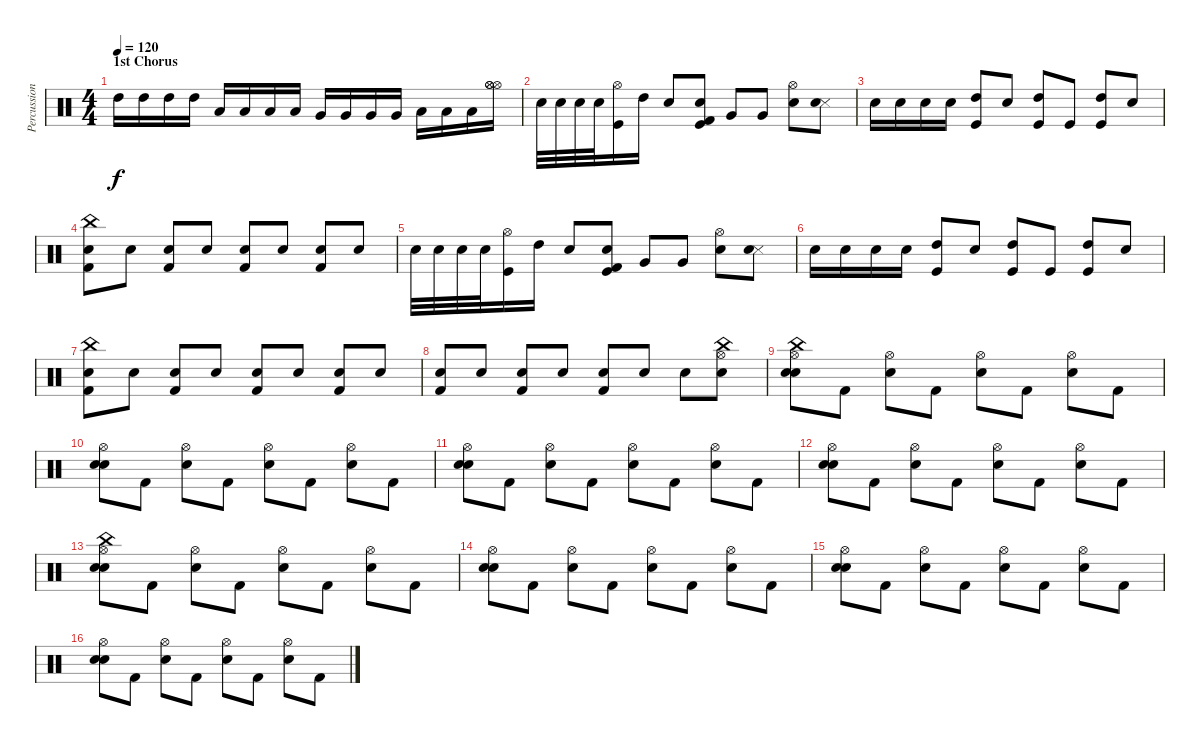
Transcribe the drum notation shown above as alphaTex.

\track ("Percussion" "Percussion") {instrument percussion}
\staff {score}
\articulation defaults
\ts (4 4)
\section ("" "1st Chorus")
\tempo 120
\clef neutral
\ks c "High Tom (hit)".16{dy f} "High Tom (hit)".16 "High Tom (hit)".16 "High Tom (hit)".16 "Low Tom (hit)".16 "Low Tom (hit)".16 "Low Tom (hit)".16 "Low Tom (hit)".16 "Very Low Tom (hit)".16 "Very Low Tom (hit)".16 "Very Low Tom (hit)".16 "Very Low Tom (hit)".16 "Low Floor Tom (hit)".16 "Low Floor Tom (hit)".16 "Low Floor Tom (hit)".16
("Hi-Hat (open)" "Hi-Hat (open)" "Hi-Hat (open)").16 |
"Electric Snare (hit)".32 "Electric Snare (hit)".32 "Electric Snare (hit)".32 "Electric Snare (hit)".32 ("Kick (hit)" "Hi-Hat (open)").16 "High Tom (hit)".16 "Electric Snare (hit)".8 ("Kick (hit)" "Kick (hit) 2" "Electric Snare (hit)").8 "Very Low Tom (hit)".8 "Very Low Tom (hit)".8 ("Hi-Hat (open)" "Snare (hit) 2").8 ("Snare (side stick) 3" "Snare (hit) 2").8 |
"Electric Snare (hit)".16 "Electric Snare (hit)".16 "Electric Snare (hit)".16 "Electric Snare (hit)".16 ("High Tom (hit)" "Kick (hit)").8 "Electric Snare (hit)".8 ("High Tom (hit)" "Kick (hit)").8 "Kick (hit)".8 ("High Tom (hit)" "Kick (hit)").8 "Electric Snare (hit)".8 |
("China (hit)" "Kick (hit) 2" "Electric Snare (hit)").8 "Electric Snare (hit)".8 ("Kick (hit) 2" "Electric Snare (hit)").8 "Electric Snare (hit)".8 ("Kick (hit) 2" "Electric Snare (hit)").8 "Electric Snare (hit)".8 ("Kick (hit) 2" "Electric Snare (hit)").8 "Electric Snare (hit)".8 |
"Electric Snare (hit)".32 "Electric Snare (hit)".32 "Electric Snare (hit)".32 "Electric Snare (hit)".32 ("Kick (hit)" "Hi-Hat (open)").16 "High Tom (hit)".16 "Electric Snare (hit)".8 ("Kick (hit)" "Kick (hit) 2" "Electric Snare (hit)").8 "Very Low Tom (hit)".8 "Very Low Tom (hit)".8 ("Hi-Hat (open)" "Snare (hit) 2").8 ("Snare (side stick) 3" "Snare (hit) 2").8 |
"Electric Snare (hit)".16 "Electric Snare (hit)".16 "Electric Snare (hit)".16 "Electric Snare (hit)".16 ("High Tom (hit)" "Kick (hit)").8 "Electric Snare (hit)".8 ("High Tom (hit)" "Kick (hit)").8 "Kick (hit)".8 ("High Tom (hit)" "Kick (hit)").8 "Electric Snare (hit)".8 |
("China (hit)" "Kick (hit) 2" "Electric Snare (hit)").8 "Electric Snare (hit)".8 ("Kick (hit) 2" "Electric Snare (hit)").8 "Electric Snare (hit)".8 ("Kick (hit) 2" "Electric Snare (hit)").8 "Electric Snare (hit)".8 ("Kick (hit) 2" "Electric Snare (hit)").8 "Electric Snare (hit)".8 |
("Kick (hit) 2" "Electric Snare (hit)").8 "Electric Snare (hit)".8 ("Kick (hit) 2" "Electric Snare (hit)").8 "Electric Snare (hit)".8 ("Kick (hit) 2" "Electric Snare (hit)").8 "Electric Snare (hit)".8 "Electric Snare (hit)".8 ("China (hit)" "Hi-Hat (open)" "Electric Snare (hit)").8 |
("Snare (hit) 2" "China (hit)" "Hi-Hat (open)" "Electric Snare (hit)").8 "Kick (hit) 2".8 ("Hi-Hat (open)" "Electric Snare (hit)").8 "Kick (hit) 2".8 ("Hi-Hat (open)" "Electric Snare (hit)").8 "Kick (hit) 2".8 ("Hi-Hat (open)" "Electric Snare (hit)").8 "Kick (hit) 2".8 |
("Snare (hit) 2" "Hi-Hat (open)" "Electric Snare (hit)").8 "Kick (hit) 2".8 ("Hi-Hat (open)" "Electric Snare (hit)").8 "Kick (hit) 2".8 ("Hi-Hat (open)" "Electric Snare (hit)").8 "Kick (hit) 2".8 ("Hi-Hat (open)" "Electric Snare (hit)").8 "Kick (hit) 2".8 |
("Snare (hit) 2" "Hi-Hat (open)" "Electric Snare (hit)").8 "Kick (hit) 2".8 ("Hi-Hat (open)" "Electric Snare (hit)").8 "Kick (hit) 2".8 ("Hi-Hat (open)" "Electric Snare (hit)").8 "Kick (hit) 2".8 ("Hi-Hat (open)" "Electric Snare (hit)").8 "Kick (hit) 2".8 |
("Snare (hit) 2" "Hi-Hat (open)" "Electric Snare (hit)").8 "Kick (hit) 2".8 ("Hi-Hat (open)" "Electric Snare (hit)").8 "Kick (hit) 2".8 ("Hi-Hat (open)" "Electric Snare (hit)").8 "Kick (hit) 2".8 ("Hi-Hat (open)" "Electric Snare (hit)").8 "Kick (hit) 2".8 |
("Snare (hit) 2" "China (hit)" "Hi-Hat (open)" "Electric Snare (hit)").8 "Kick (hit) 2".8 ("Hi-Hat (open)" "Electric Snare (hit)").8 "Kick (hit) 2".8 ("Hi-Hat (open)" "Electric Snare (hit)").8 "Kick (hit) 2".8 ("Hi-Hat (open)" "Electric Snare (hit)").8 "Kick (hit) 2".8 |
("Snare (hit) 2" "Hi-Hat (open)" "Electric Snare (hit)").8 "Kick (hit) 2".8 ("Hi-Hat (open)" "Electric Snare (hit)").8 "Kick (hit) 2".8 ("Hi-Hat (open)" "Electric Snare (hit)").8 "Kick (hit) 2".8 ("Hi-Hat (open)" "Electric Snare (hit)").8 "Kick (hit) 2".8 |
("Snare (hit) 2" "Hi-Hat (open)" "Electric Snare (hit)").8 "Kick (hit) 2".8 ("Hi-Hat (open)" "Electric Snare (hit)").8 "Kick (hit) 2".8 ("Hi-Hat (open)" "Electric Snare (hit)").8 "Kick (hit) 2".8 ("Hi-Hat (open)" "Electric Snare (hit)").8 "Kick (hit) 2".8 |
("Snare (hit) 2" "Hi-Hat (open)" "Electric Snare (hit)").8 "Kick (hit) 2".8 ("Hi-Hat (open)" "Electric Snare (hit)").8 "Kick (hit) 2".8 ("Hi-Hat (open)" "Electric Snare (hit)").8 "Kick (hit) 2".8 ("Hi-Hat (open)" "Electric Snare (hit)").8 "Kick (hit) 2".8
